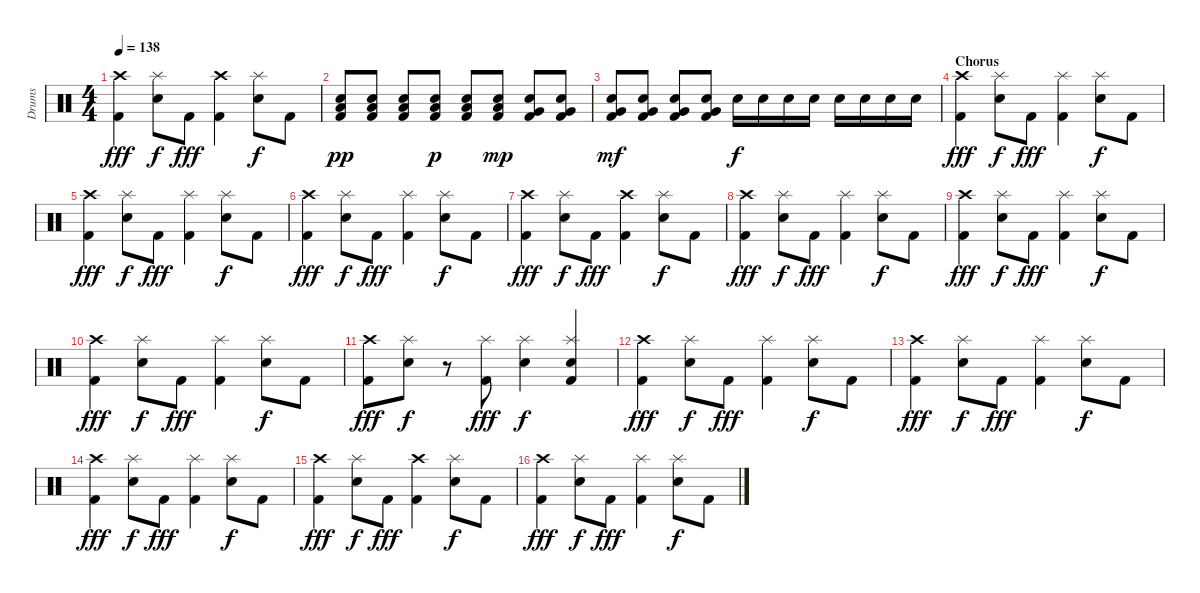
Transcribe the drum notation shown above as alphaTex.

\track ("Drums" "Drums") {instrument percussion}
\staff {score}
\articulation defaults
\ts (4 4)
\tempo 138
\clef neutral
\ks c
("Crash high (hit)" "Kick (hit) 2").4{dy fff} ("Splash (hit)" "Snare (hit) 2").8{dy f} "Kick (hit) 2".8{dy fff} ("Crash high (hit)" "Kick (hit) 2").4 ("Splash (hit)" "Snare (hit) 2").8{dy f} "Kick (hit) 2".8 |
("Snare (hit) 2" "Low Floor Tom (hit)" "Kick (hit) 2").8{dy pp} ("Snare (hit) 2" "Low Floor Tom (hit)" "Kick (hit) 2").8 ("Snare (hit) 2" "Low Floor Tom (hit)" "Kick (hit) 2").8 ("Snare (hit) 2" "Low Floor Tom (hit)" "Kick (hit) 2").8{dy p} ("Snare (hit) 2" "Low Floor Tom (hit)" "Kick (hit) 2").8 ("Snare (hit) 2" "Low Floor Tom (hit)" "Kick (hit) 2").8{dy mp} ("Snare (hit) 2" "Very Low Tom (hit)" "Kick (hit) 2").8 ("Snare (hit) 2" "Very Low Tom (hit)" "Kick (hit) 2").8 |
("Snare (hit) 2" "Very Low Tom (hit)" "Kick (hit) 2").8{dy mf} ("Snare (hit) 2" "Very Low Tom (hit)" "Kick (hit) 2").8 ("Snare (hit) 2" "Very Low Tom (hit)" "Kick (hit) 2").8 ("Snare (hit) 2" "Very Low Tom (hit)" "Kick (hit) 2").8 "Snare (hit) 2".16{dy f} "Snare (hit) 2".16 "Snare (hit) 2".16 "Snare (hit) 2".16 "Snare (hit) 2".16 "Snare (hit) 2".16 "Snare (hit) 2".16 "Snare (hit) 2".16 |
\section ("" "Chorus")
("Crash high (hit)" "Kick (hit) 2").4{dy fff} ("Splash (hit)" "Snare (hit) 2").8{dy f} "Kick (hit) 2".8{dy fff} ("Splash (hit)" "Kick (hit) 2").4 ("Splash (hit)" "Snare (hit) 2").8{dy f} "Kick (hit) 2".8 |
("Crash high (hit)" "Kick (hit) 2").4{dy fff} ("Splash (hit)" "Snare (hit) 2").8{dy f} "Kick (hit) 2".8{dy fff} ("Splash (hit)" "Kick (hit) 2").4 ("Splash (hit)" "Snare (hit) 2").8{dy f} "Kick (hit) 2".8 |
("Crash high (hit)" "Kick (hit) 2").4{dy fff} ("Splash (hit)" "Snare (hit) 2").8{dy f} "Kick (hit) 2".8{dy fff} ("Splash (hit)" "Kick (hit) 2").4 ("Splash (hit)" "Snare (hit) 2").8{dy f} "Kick (hit) 2".8 |
("Crash high (hit)" "Kick (hit) 2").4{dy fff} ("Splash (hit)" "Snare (hit) 2").8{dy f} "Kick (hit) 2".8{dy fff} ("Crash high (hit)" "Kick (hit) 2").4 ("Splash (hit)" "Snare (hit) 2").8{dy f} "Kick (hit) 2".8 |
("Crash high (hit)" "Kick (hit) 2").4{dy fff} ("Splash (hit)" "Snare (hit) 2").8{dy f} "Kick (hit) 2".8{dy fff} ("Splash (hit)" "Kick (hit) 2").4 ("Splash (hit)" "Snare (hit) 2").8{dy f} "Kick (hit) 2".8 |
("Crash high (hit)" "Kick (hit) 2").4{dy fff} ("Splash (hit)" "Snare (hit) 2").8{dy f} "Kick (hit) 2".8{dy fff} ("Splash (hit)" "Kick (hit) 2").4 ("Splash (hit)" "Snare (hit) 2").8{dy f} "Kick (hit) 2".8 |
("Crash high (hit)" "Kick (hit) 2").4{dy fff} ("Splash (hit)" "Snare (hit) 2").8{dy f} "Kick (hit) 2".8{dy fff} ("Splash (hit)" "Kick (hit) 2").4 ("Splash (hit)" "Snare (hit) 2").8{dy f} "Kick (hit) 2".8 |
("Crash high (hit)" "Kick (hit) 2").8{dy fff} ("Splash (hit)" "Snare (hit) 2").8{dy f} r.8 ("Splash (hit)" "Kick (hit) 2").8{dy fff} ("Splash (hit)" "Snare (hit) 2").4{dy f} ("Splash (hit)" "Snare (hit) 2" "Kick (hit) 2").4 |
("Crash high (hit)" "Kick (hit) 2").4{dy fff} ("Splash (hit)" "Snare (hit) 2").8{dy f} "Kick (hit) 2".8{dy fff} ("Splash (hit)" "Kick (hit) 2").4 ("Splash (hit)" "Snare (hit) 2").8{dy f} "Kick (hit) 2".8 |
("Crash high (hit)" "Kick (hit) 2").4{dy fff} ("Splash (hit)" "Snare (hit) 2").8{dy f} "Kick (hit) 2".8{dy fff} ("Splash (hit)" "Kick (hit) 2").4 ("Splash (hit)" "Snare (hit) 2").8{dy f} "Kick (hit) 2".8 |
("Crash high (hit)" "Kick (hit) 2").4{dy fff} ("Splash (hit)" "Snare (hit) 2").8{dy f} "Kick (hit) 2".8{dy fff} ("Splash (hit)" "Kick (hit) 2").4 ("Splash (hit)" "Snare (hit) 2").8{dy f} "Kick (hit) 2".8 |
("Crash high (hit)" "Kick (hit) 2").4{dy fff} ("Splash (hit)" "Snare (hit) 2").8{dy f} "Kick (hit) 2".8{dy fff} ("Crash high (hit)" "Kick (hit) 2").4 ("Splash (hit)" "Snare (hit) 2").8{dy f} "Kick (hit) 2".8 |
("Crash high (hit)" "Kick (hit) 2").4{dy fff} ("Splash (hit)" "Snare (hit) 2").8{dy f} "Kick (hit) 2".8{dy fff} ("Splash (hit)" "Kick (hit) 2").4 ("Splash (hit)" "Snare (hit) 2").8{dy f} "Kick (hit) 2".8
